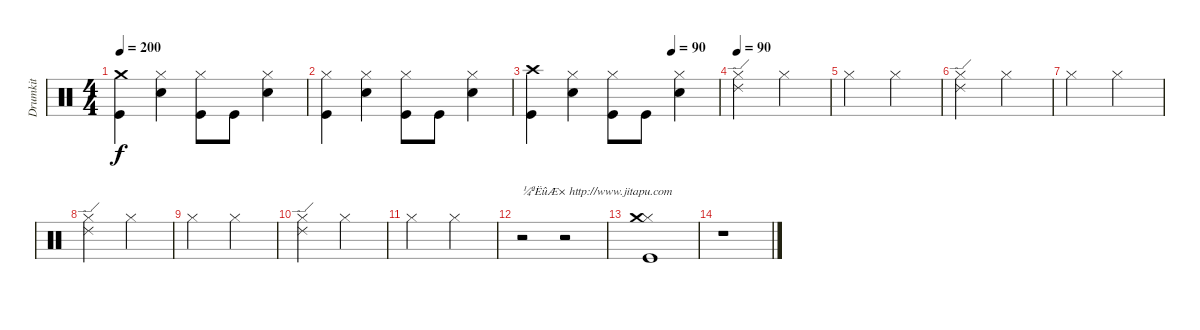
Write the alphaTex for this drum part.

\track ("Drumkit" "Drumkit") {instrument percussion}
\staff {score}
\articulation defaults
\ts (4 4)
\tempo 200
\clef neutral
\ks c
("Crash medium (hit)" "Kick (hit)").4{dy f} ("Hi-Hat (closed)" "Snare (hit) 2").4 ("Hi-Hat (closed)" "Kick (hit)").8 "Kick (hit)".8 ("Hi-Hat (closed)" "Snare (hit) 2").4 |
("Hi-Hat (closed)" "Kick (hit)").4 ("Hi-Hat (closed)" "Snare (hit) 2").4 ("Hi-Hat (closed)" "Kick (hit)").8 "Kick (hit)".8 ("Hi-Hat (closed)" "Snare (hit) 2").4 |
\tempo (90 0.75)
("Crash high (hit)" "Kick (hit)").4 ("Hi-Hat (closed)" "Snare (hit) 2").4 ("Hi-Hat (closed)" "Kick (hit)").8 "Kick (hit)".8 ("Hi-Hat (closed)" "Snare (hit) 2").4 |
\tempo 90
("Ride (edge) 2" "Hi-Hat (closed)").2 "Hi-Hat (closed)".2 |
"Hi-Hat (closed)".2 "Hi-Hat (closed)".2 |
("Ride (edge) 2" "Hi-Hat (closed)").2 "Hi-Hat (closed)".2 |
"Hi-Hat (closed)".2 "Hi-Hat (closed)".2 |
("Ride (edge) 2" "Hi-Hat (closed)").2 "Hi-Hat (closed)".2 |
"Hi-Hat (closed)".2 "Hi-Hat (closed)".2 |
("Ride (edge) 2" "Hi-Hat (closed)").2 "Hi-Hat (closed)".2 |
"Hi-Hat (closed)".2 "Hi-Hat (closed)".2 |
r.2{txt "¼ªËûÆ× http://www.jitapu.com"} r.2 |
("Kick (hit)" "Hi-Hat (closed)" "Crash medium (hit)").1 |
r.1
